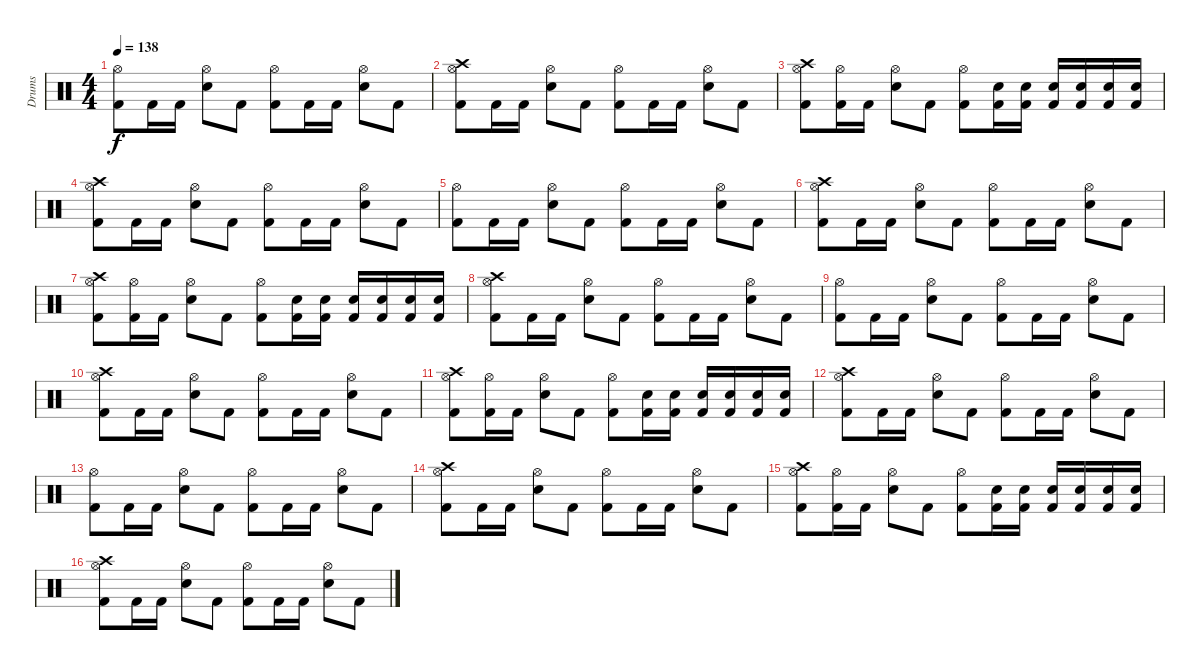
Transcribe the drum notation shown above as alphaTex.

\track ("Drums" "Drums") {instrument percussion}
\staff {score}
\articulation defaults
\ts (4 4)
\tempo 138
\clef neutral
\ks c
("Hi-Hat (open)" "Kick (hit) 2").8{dy f} "Kick (hit) 2".16 "Kick (hit) 2".16 ("Hi-Hat (open)" "Electric Snare (hit)").8 "Kick (hit) 2".8 ("Hi-Hat (open)" "Kick (hit) 2").8 "Kick (hit) 2".16 "Kick (hit) 2".16 ("Hi-Hat (open)" "Electric Snare (hit)").8 "Kick (hit) 2".8 |
("Crash high (hit)" "Hi-Hat (open)" "Kick (hit) 2").8 "Kick (hit) 2".16 "Kick (hit) 2".16 ("Hi-Hat (open)" "Electric Snare (hit)").8 "Kick (hit) 2".8 ("Hi-Hat (open)" "Kick (hit) 2").8 "Kick (hit) 2".16 "Kick (hit) 2".16 ("Hi-Hat (open)" "Electric Snare (hit)").8 "Kick (hit) 2".8 |
("Crash high (hit)" "Hi-Hat (open)" "Kick (hit) 2").8 ("Hi-Hat (open)" "Kick (hit) 2").16 "Kick (hit) 2".16 ("Hi-Hat (open)" "Electric Snare (hit)").8 "Kick (hit) 2".8 ("Hi-Hat (open)" "Kick (hit) 2").8 ("Electric Snare (hit)" "Kick (hit) 2").16 ("Electric Snare (hit)" "Kick (hit) 2").16 ("Electric Snare (hit)" "Kick (hit) 2").16 ("Electric Snare (hit)" "Kick (hit) 2").16 ("Electric Snare (hit)" "Kick (hit) 2").16 ("Electric Snare (hit)" "Kick (hit) 2").16 |
("Crash high (hit)" "Hi-Hat (open)" "Kick (hit) 2").8 "Kick (hit) 2".16 "Kick (hit) 2".16 ("Hi-Hat (open)" "Electric Snare (hit)").8 "Kick (hit) 2".8 ("Hi-Hat (open)" "Kick (hit) 2").8 "Kick (hit) 2".16 "Kick (hit) 2".16 ("Hi-Hat (open)" "Electric Snare (hit)").8 "Kick (hit) 2".8 |
("Hi-Hat (open)" "Kick (hit) 2").8 "Kick (hit) 2".16 "Kick (hit) 2".16 ("Hi-Hat (open)" "Electric Snare (hit)").8 "Kick (hit) 2".8 ("Hi-Hat (open)" "Kick (hit) 2").8 "Kick (hit) 2".16 "Kick (hit) 2".16 ("Hi-Hat (open)" "Electric Snare (hit)").8 "Kick (hit) 2".8 |
("Crash high (hit)" "Hi-Hat (open)" "Kick (hit) 2").8 "Kick (hit) 2".16 "Kick (hit) 2".16 ("Hi-Hat (open)" "Electric Snare (hit)").8 "Kick (hit) 2".8 ("Hi-Hat (open)" "Kick (hit) 2").8 "Kick (hit) 2".16 "Kick (hit) 2".16 ("Hi-Hat (open)" "Electric Snare (hit)").8 "Kick (hit) 2".8 |
("Crash high (hit)" "Hi-Hat (open)" "Kick (hit) 2").8 ("Hi-Hat (open)" "Kick (hit) 2").16 "Kick (hit) 2".16 ("Hi-Hat (open)" "Electric Snare (hit)").8 "Kick (hit) 2".8 ("Hi-Hat (open)" "Kick (hit) 2").8 ("Electric Snare (hit)" "Kick (hit) 2").16 ("Electric Snare (hit)" "Kick (hit) 2").16 ("Electric Snare (hit)" "Kick (hit) 2").16 ("Electric Snare (hit)" "Kick (hit) 2").16 ("Electric Snare (hit)" "Kick (hit) 2").16 ("Electric Snare (hit)" "Kick (hit) 2").16 |
("Crash high (hit)" "Hi-Hat (open)" "Kick (hit) 2").8 "Kick (hit) 2".16 "Kick (hit) 2".16 ("Hi-Hat (open)" "Electric Snare (hit)").8 "Kick (hit) 2".8 ("Hi-Hat (open)" "Kick (hit) 2").8 "Kick (hit) 2".16 "Kick (hit) 2".16 ("Hi-Hat (open)" "Electric Snare (hit)").8 "Kick (hit) 2".8 |
("Hi-Hat (open)" "Kick (hit) 2").8 "Kick (hit) 2".16 "Kick (hit) 2".16 ("Hi-Hat (open)" "Electric Snare (hit)").8 "Kick (hit) 2".8 ("Hi-Hat (open)" "Kick (hit) 2").8 "Kick (hit) 2".16 "Kick (hit) 2".16 ("Hi-Hat (open)" "Electric Snare (hit)").8 "Kick (hit) 2".8 |
("Crash high (hit)" "Hi-Hat (open)" "Kick (hit) 2").8 "Kick (hit) 2".16 "Kick (hit) 2".16 ("Hi-Hat (open)" "Electric Snare (hit)").8 "Kick (hit) 2".8 ("Hi-Hat (open)" "Kick (hit) 2").8 "Kick (hit) 2".16 "Kick (hit) 2".16 ("Hi-Hat (open)" "Electric Snare (hit)").8 "Kick (hit) 2".8 |
("Crash high (hit)" "Hi-Hat (open)" "Kick (hit) 2").8 ("Hi-Hat (open)" "Kick (hit) 2").16 "Kick (hit) 2".16 ("Hi-Hat (open)" "Electric Snare (hit)").8 "Kick (hit) 2".8 ("Hi-Hat (open)" "Kick (hit) 2").8 ("Electric Snare (hit)" "Kick (hit) 2").16 ("Electric Snare (hit)" "Kick (hit) 2").16 ("Electric Snare (hit)" "Kick (hit) 2").16 ("Electric Snare (hit)" "Kick (hit) 2").16 ("Electric Snare (hit)" "Kick (hit) 2").16 ("Electric Snare (hit)" "Kick (hit) 2").16 |
("Crash high (hit)" "Hi-Hat (open)" "Kick (hit) 2").8 "Kick (hit) 2".16 "Kick (hit) 2".16 ("Hi-Hat (open)" "Electric Snare (hit)").8 "Kick (hit) 2".8 ("Hi-Hat (open)" "Kick (hit) 2").8 "Kick (hit) 2".16 "Kick (hit) 2".16 ("Hi-Hat (open)" "Electric Snare (hit)").8 "Kick (hit) 2".8 |
("Hi-Hat (open)" "Kick (hit) 2").8 "Kick (hit) 2".16 "Kick (hit) 2".16 ("Hi-Hat (open)" "Electric Snare (hit)").8 "Kick (hit) 2".8 ("Hi-Hat (open)" "Kick (hit) 2").8 "Kick (hit) 2".16 "Kick (hit) 2".16 ("Hi-Hat (open)" "Electric Snare (hit)").8 "Kick (hit) 2".8 |
("Crash high (hit)" "Hi-Hat (open)" "Kick (hit) 2").8 "Kick (hit) 2".16 "Kick (hit) 2".16 ("Hi-Hat (open)" "Electric Snare (hit)").8 "Kick (hit) 2".8 ("Hi-Hat (open)" "Kick (hit) 2").8 "Kick (hit) 2".16 "Kick (hit) 2".16 ("Hi-Hat (open)" "Electric Snare (hit)").8 "Kick (hit) 2".8 |
("Crash high (hit)" "Hi-Hat (open)" "Kick (hit) 2").8 ("Hi-Hat (open)" "Kick (hit) 2").16 "Kick (hit) 2".16 ("Hi-Hat (open)" "Electric Snare (hit)").8 "Kick (hit) 2".8 ("Hi-Hat (open)" "Kick (hit) 2").8 ("Electric Snare (hit)" "Kick (hit) 2").16 ("Electric Snare (hit)" "Kick (hit) 2").16 ("Electric Snare (hit)" "Kick (hit) 2").16 ("Electric Snare (hit)" "Kick (hit) 2").16 ("Electric Snare (hit)" "Kick (hit) 2").16 ("Electric Snare (hit)" "Kick (hit) 2").16 |
("Crash high (hit)" "Hi-Hat (open)" "Kick (hit) 2").8 "Kick (hit) 2".16 "Kick (hit) 2".16 ("Hi-Hat (open)" "Electric Snare (hit)").8 "Kick (hit) 2".8 ("Hi-Hat (open)" "Kick (hit) 2").8 "Kick (hit) 2".16 "Kick (hit) 2".16 ("Hi-Hat (open)" "Electric Snare (hit)").8 "Kick (hit) 2".8
